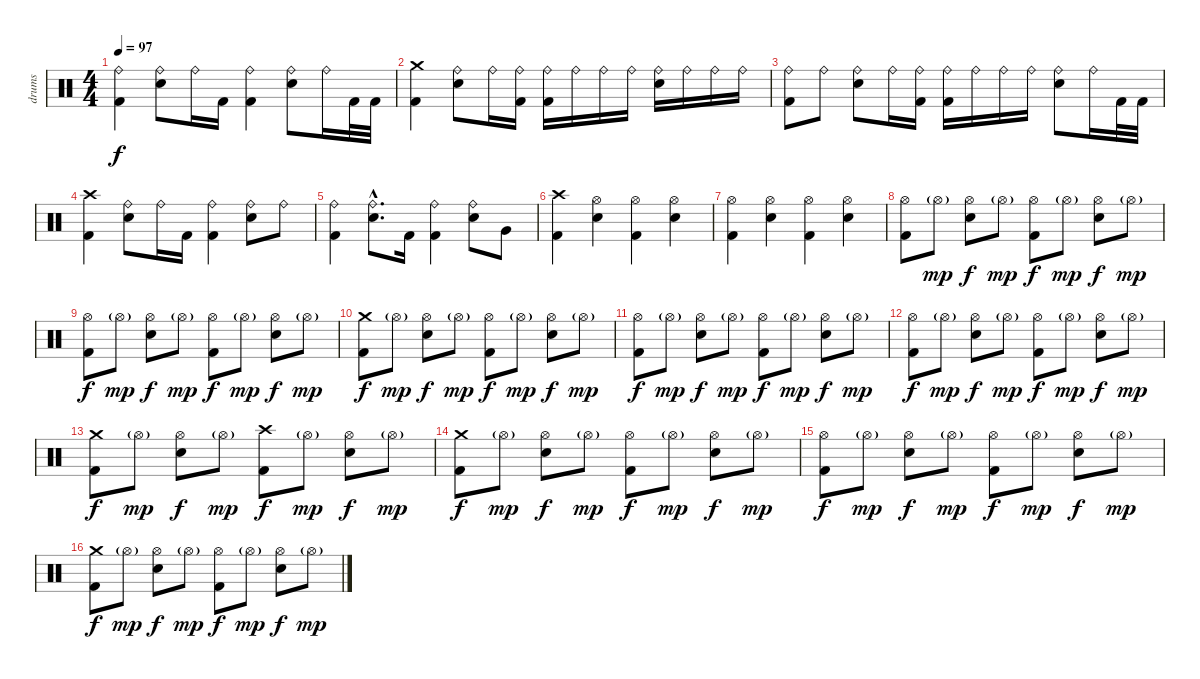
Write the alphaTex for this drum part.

\track ("drums" "drums") {instrument percussion}
\staff {score}
\articulation defaults
\ts (4 4)
\tempo 97
\clef neutral
\ks c
("Ride (bell)" "Kick (hit) 2").4{dy f} ("Ride (bell)" "Electric Snare (hit)").8 "Ride (bell)".16 "Kick (hit) 2".16 ("Ride (bell)" "Kick (hit) 2").4 ("Ride (bell)" "Electric Snare (hit)").8 "Ride (bell)".16 "Kick (hit) 2".32 "Kick (hit) 2".32 |
("Crash medium (hit)" "Kick (hit) 2").4 ("Ride (bell)" "Electric Snare (hit)").8 "Ride (bell)".16 ("Ride (bell)" "Kick (hit) 2").16 ("Ride (bell)" "Kick (hit) 2").16 "Ride (bell)".16 "Ride (bell)".16 "Ride (bell)".16 ("Ride (bell)" "Electric Snare (hit)").16 "Ride (bell)".16 "Ride (bell)".16 "Ride (bell)".16 |
("Ride (bell)" "Kick (hit) 2").8 "Ride (bell)".8 ("Ride (bell)" "Electric Snare (hit)").8 "Ride (bell)".16 ("Ride (bell)" "Kick (hit) 2").16 ("Ride (bell)" "Kick (hit) 2").16 "Ride (bell)".16 "Ride (bell)".16 "Ride (bell)".16 ("Ride (bell)" "Electric Snare (hit)").8 "Ride (bell)".16 "Kick (hit) 2".32 "Kick (hit) 2".32 |
("Crash high (hit)" "Kick (hit) 2").4 ("Ride (bell)" "Electric Snare (hit)").8 "Ride (bell)".16 "Kick (hit) 2".16 ("Ride (bell)" "Kick (hit) 2").4 ("Ride (bell)" "Electric Snare (hit)").8 "Ride (bell)".8 |
("Ride (bell)" "Kick (hit) 2").4 ("Ride (bell)"{hac} "Electric Snare (hit)"{hac}).8{d} "Kick (hit) 2".16 ("Ride (bell)" "Kick (hit) 2").4 ("Ride (bell)" "Electric Snare (hit)").8 "Very Low Tom (hit)".8 |
("Crash high (hit)" "Kick (hit) 2").4 ("Hi-Hat (open)" "Electric Snare (hit)").4 ("Hi-Hat (open)" "Kick (hit) 2").4 ("Hi-Hat (open)" "Electric Snare (hit)").4 |
("Hi-Hat (open)" "Kick (hit) 2").4 ("Hi-Hat (open)" "Electric Snare (hit)").4 ("Hi-Hat (open)" "Kick (hit) 2").4 ("Hi-Hat (open)" "Electric Snare (hit)").4 |
("Hi-Hat (open)" "Kick (hit) 2").8 "Hi-Hat (open)"{g}.8{dy mp} ("Hi-Hat (open)" "Electric Snare (hit)").8{dy f} "Hi-Hat (open)"{g}.8{dy mp} ("Hi-Hat (open)" "Kick (hit) 2").8{dy f} "Hi-Hat (open)"{g}.8{dy mp} ("Hi-Hat (open)" "Electric Snare (hit)").8{dy f} "Hi-Hat (open)"{g}.8{dy mp} |
("Hi-Hat (open)" "Kick (hit) 2").8{dy f} "Hi-Hat (open)"{g}.8{dy mp} ("Hi-Hat (open)" "Electric Snare (hit)").8{dy f} "Hi-Hat (open)"{g}.8{dy mp} ("Hi-Hat (open)" "Kick (hit) 2").8{dy f} "Hi-Hat (open)"{g}.8{dy mp} ("Hi-Hat (open)" "Electric Snare (hit)").8{dy f} "Hi-Hat (open)"{g}.8{dy mp} |
("Crash medium (hit)" "Kick (hit) 2").8{dy f} "Hi-Hat (open)"{g}.8{dy mp} ("Hi-Hat (open)" "Electric Snare (hit)").8{dy f} "Hi-Hat (open)"{g}.8{dy mp} ("Hi-Hat (open)" "Kick (hit) 2").8{dy f} "Hi-Hat (open)"{g}.8{dy mp} ("Hi-Hat (open)" "Electric Snare (hit)").8{dy f} "Hi-Hat (open)"{g}.8{dy mp} |
("Hi-Hat (open)" "Kick (hit) 2").8{dy f} "Hi-Hat (open)"{g}.8{dy mp} ("Hi-Hat (open)" "Electric Snare (hit)").8{dy f} "Hi-Hat (open)"{g}.8{dy mp} ("Hi-Hat (open)" "Kick (hit) 2").8{dy f} "Hi-Hat (open)"{g}.8{dy mp} ("Hi-Hat (open)" "Electric Snare (hit)").8{dy f} "Hi-Hat (open)"{g}.8{dy mp} |
("Hi-Hat (open)" "Kick (hit) 2").8{dy f} "Hi-Hat (open)"{g}.8{dy mp} ("Hi-Hat (open)" "Electric Snare (hit)").8{dy f} "Hi-Hat (open)"{g}.8{dy mp} ("Hi-Hat (open)" "Kick (hit) 2").8{dy f} "Hi-Hat (open)"{g}.8{dy mp} ("Hi-Hat (open)" "Electric Snare (hit)").8{dy f} "Hi-Hat (open)"{g}.8{dy mp} |
("Crash medium (hit)" "Kick (hit) 2").8{dy f} "Hi-Hat (open)"{g}.8{dy mp} ("Hi-Hat (open)" "Electric Snare (hit)").8{dy f} "Hi-Hat (open)"{g}.8{dy mp} ("Crash high (hit)" "Kick (hit) 2").8{dy f} "Hi-Hat (open)"{g}.8{dy mp} ("Hi-Hat (open)" "Electric Snare (hit)").8{dy f} "Hi-Hat (open)"{g}.8{dy mp} |
("Crash medium (hit)" "Kick (hit) 2").8{dy f} "Hi-Hat (open)"{g}.8{dy mp} ("Hi-Hat (open)" "Electric Snare (hit)").8{dy f} "Hi-Hat (open)"{g}.8{dy mp} ("Hi-Hat (open)" "Kick (hit) 2").8{dy f} "Hi-Hat (open)"{g}.8{dy mp} ("Hi-Hat (open)" "Electric Snare (hit)").8{dy f} "Hi-Hat (open)"{g}.8{dy mp} |
("Hi-Hat (open)" "Kick (hit) 2").8{dy f} "Hi-Hat (open)"{g}.8{dy mp} ("Hi-Hat (open)" "Electric Snare (hit)").8{dy f} "Hi-Hat (open)"{g}.8{dy mp} ("Hi-Hat (open)" "Kick (hit) 2").8{dy f} "Hi-Hat (open)"{g}.8{dy mp} ("Hi-Hat (open)" "Electric Snare (hit)").8{dy f} "Hi-Hat (open)"{g}.8{dy mp} |
("Crash medium (hit)" "Kick (hit) 2").8{dy f} "Hi-Hat (open)"{g}.8{dy mp} ("Hi-Hat (open)" "Electric Snare (hit)").8{dy f} "Hi-Hat (open)"{g}.8{dy mp} ("Hi-Hat (open)" "Kick (hit) 2").8{dy f} "Hi-Hat (open)"{g}.8{dy mp} ("Hi-Hat (open)" "Electric Snare (hit)").8{dy f} "Hi-Hat (open)"{g}.8{dy mp}
